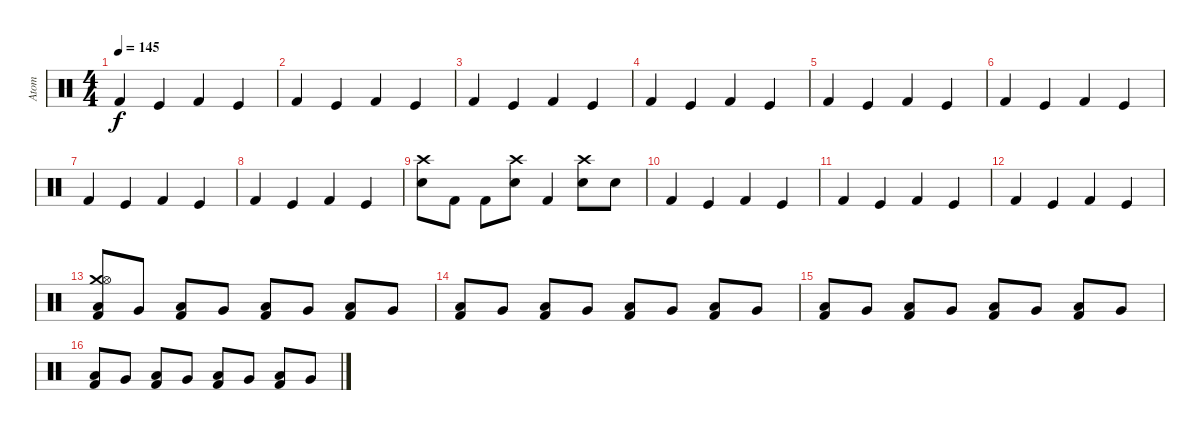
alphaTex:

\track ("Atom" "Atom") {instrument percussion}
\staff {score}
\articulation defaults
\ts (4 4)
\tempo 145
\clef neutral
\ks c "Kick (hit) 2".4{dy f} "Kick (hit)".4 "Kick (hit) 2".4 "Kick (hit)".4
|
"Kick (hit) 2".4 "Kick (hit)".4 "Kick (hit) 2".4 "Kick (hit)".4 |
"Kick (hit) 2".4 "Kick (hit)".4 "Kick (hit) 2".4 "Kick (hit)".4 |
"Kick (hit) 2".4 "Kick (hit)".4 "Kick (hit) 2".4 "Kick (hit)".4 |
"Kick (hit) 2".4 "Kick (hit)".4 "Kick (hit) 2".4 "Kick (hit)".4 |
"Kick (hit) 2".4 "Kick (hit)".4 "Kick (hit) 2".4 "Kick (hit)".4 |
"Kick (hit) 2".4 "Kick (hit)".4 "Kick (hit) 2".4 "Kick (hit)".4 |
"Kick (hit) 2".4 "Kick (hit)".4 "Kick (hit) 2".4 "Kick (hit)".4 |
("Crash high (hit)" "Electric Snare (hit)").8 "Kick (hit) 2".8 "Kick (hit) 2".8 ("Crash high (hit)" "Electric Snare (hit)").8 "Kick (hit) 2".4 ("Crash high (hit)" "Electric Snare (hit)").8 "Electric Snare (hit)".8 |
"Kick (hit) 2".4 "Kick (hit)".4 "Kick (hit) 2".4 "Kick (hit)".4 |
"Kick (hit) 2".4 "Kick (hit)".4 "Kick (hit) 2".4 "Kick (hit)".4 |
"Kick (hit) 2".4 "Kick (hit)".4 "Kick (hit) 2".4 "Kick (hit)".4 |
("Crash medium (hit)" "Hi-Hat (open)" "Kick (hit) 2" "Low Tom (hit)").8 "Very Low Tom (hit)".8 ("Kick (hit) 2" "Low Floor Tom (hit)").8 "Very Low Tom (hit)".8 ("Kick (hit) 2" "Low Tom (hit)").8 "Very Low Tom (hit)".8 ("Kick (hit) 2" "Low Floor Tom (hit)").8 "Very Low Tom (hit)".8 |
("Kick (hit) 2" "Low Tom (hit)").8 "Very Low Tom (hit)".8 ("Kick (hit) 2" "Low Floor Tom (hit)").8 "Very Low Tom (hit)".8 ("Kick (hit) 2" "Low Tom (hit)").8 "Very Low Tom (hit)".8 ("Kick (hit) 2" "Low Floor Tom (hit)").8 "Very Low Tom (hit)".8 |
("Kick (hit) 2" "Low Tom (hit)").8 "Very Low Tom (hit)".8 ("Kick (hit) 2" "Low Floor Tom (hit)").8 "Very Low Tom (hit)".8 ("Kick (hit) 2" "Low Tom (hit)").8 "Very Low Tom (hit)".8 ("Kick (hit) 2" "Low Floor Tom (hit)").8 "Very Low Tom (hit)".8 |
("Kick (hit) 2" "Low Tom (hit)").8 "Very Low Tom (hit)".8 ("Kick (hit) 2" "Low Floor Tom (hit)").8 "Very Low Tom (hit)".8 ("Kick (hit) 2" "Low Tom (hit)").8 "Very Low Tom (hit)".8 ("Kick (hit) 2" "Low Floor Tom (hit)").8 "Very Low Tom (hit)".8
